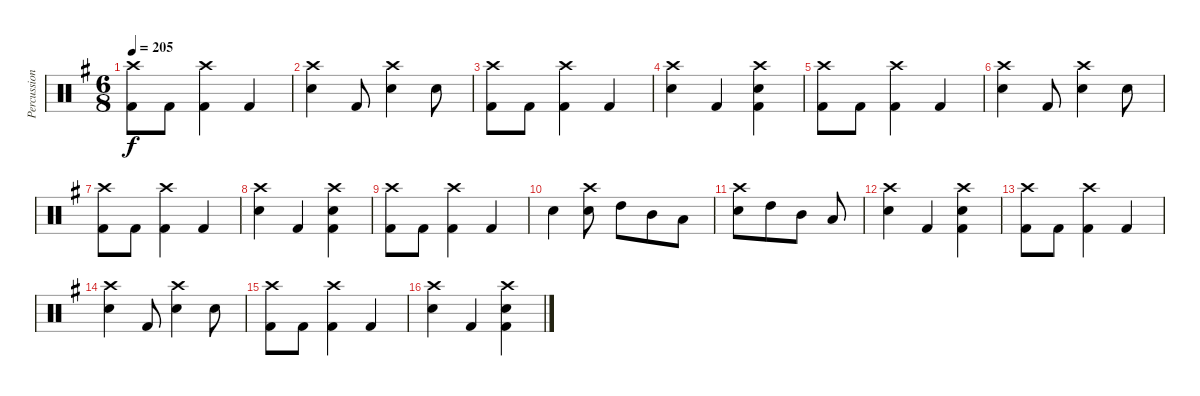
\track ("Percussion" "Percussion") {instrument percussion}
\staff {score}
\articulation defaults
\ts (6 8)
\tempo 205
\clef neutral
\ks g
("Crash high (hit)" "Kick (hit) 2").8{dy f} "Kick (hit) 2".8 ("Crash high (hit)" "Kick (hit) 2").4 "Kick (hit) 2".4 |
("Crash high (hit)" "Electric Snare (hit)").4 "Kick (hit) 2".8 ("Crash high (hit)" "Electric Snare (hit)").4 "Electric Snare (hit)".8 |
("Crash high (hit)" "Kick (hit) 2").8 "Kick (hit) 2".8 ("Crash high (hit)" "Kick (hit) 2").4 "Kick (hit) 2".4 |
("Crash high (hit)" "Electric Snare (hit)").4 "Kick (hit) 2".4 ("Electric Snare (hit)" "Kick (hit) 2" "Crash high (hit)").4 |
("Crash high (hit)" "Kick (hit) 2").8 "Kick (hit) 2".8 ("Crash high (hit)" "Kick (hit) 2").4 "Kick (hit) 2".4 |
("Crash high (hit)" "Electric Snare (hit)").4 "Kick (hit) 2".8 ("Crash high (hit)" "Electric Snare (hit)").4 "Electric Snare (hit)".8 |
("Crash high (hit)" "Kick (hit) 2").8 "Kick (hit) 2".8 ("Crash high (hit)" "Kick (hit) 2").4 "Kick (hit) 2".4 |
("Crash high (hit)" "Electric Snare (hit)").4 "Kick (hit) 2".4 ("Electric Snare (hit)" "Kick (hit) 2" "Crash high (hit)").4 |
("Crash high (hit)" "Kick (hit) 2").8 "Kick (hit) 2".8 ("Crash high (hit)" "Kick (hit) 2").4 "Kick (hit) 2".4 |
"Electric Snare (hit)".4 ("Crash high (hit)" "Electric Snare (hit)").8 "High Tom (hit)".8 "Mid Tom (hit)".8 "Low Tom (hit)".8 |
("Crash high (hit)" "Electric Snare (hit)").8 "High Tom (hit)".8 "Mid Tom (hit)".8 "Low Tom (hit)".8 |
("Crash high (hit)" "Electric Snare (hit)").4 "Kick (hit) 2".4 ("Electric Snare (hit)" "Kick (hit) 2" "Crash high (hit)").4 |
("Crash high (hit)" "Kick (hit) 2").8 "Kick (hit) 2".8 ("Crash high (hit)" "Kick (hit) 2").4 "Kick (hit) 2".4 |
("Crash high (hit)" "Electric Snare (hit)").4 "Kick (hit) 2".8 ("Crash high (hit)" "Electric Snare (hit)").4 "Electric Snare (hit)".8 |
("Crash high (hit)" "Kick (hit) 2").8 "Kick (hit) 2".8 ("Crash high (hit)" "Kick (hit) 2").4 "Kick (hit) 2".4 |
("Crash high (hit)" "Electric Snare (hit)").4 "Kick (hit) 2".4 ("Electric Snare (hit)" "Kick (hit) 2" "Crash high (hit)").4
